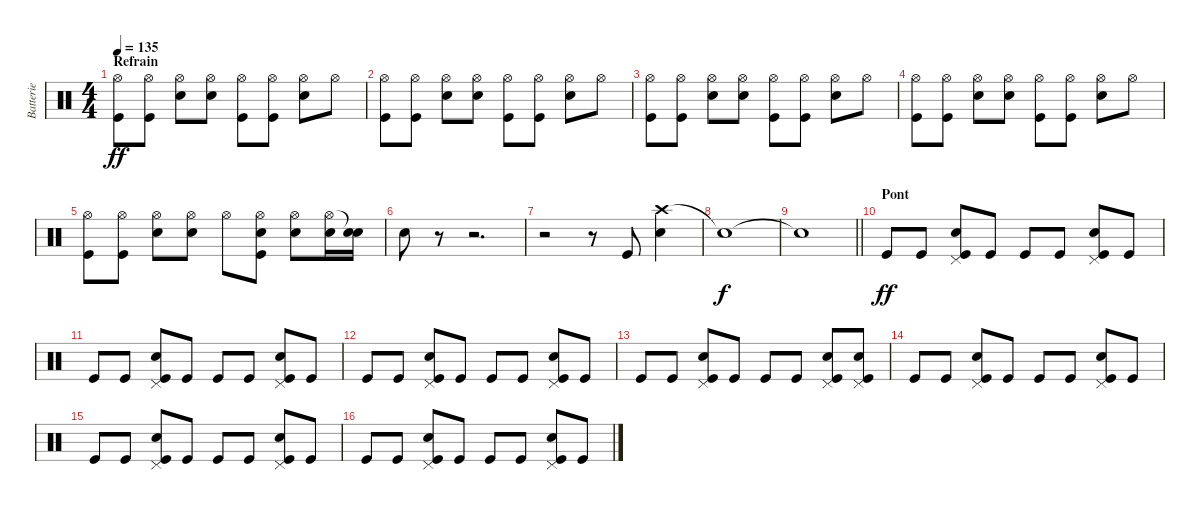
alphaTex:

\track ("Batterie" "Batterie") {instrument percussion}
\staff {score}
\articulation defaults
\ts (4 4)
\section ("" "Refrain")
\tempo 135
\clef neutral
\ks c
("Hi-Hat (open)" "Kick (hit)").8{dy ff} ("Hi-Hat (open)" "Kick (hit)").8 ("Hi-Hat (open)" "Electric Snare (hit)").8 ("Hi-Hat (open)" "Electric Snare (hit)").8 ("Hi-Hat (open)" "Kick (hit)").8 ("Hi-Hat (open)" "Kick (hit)").8 ("Hi-Hat (open)" "Electric Snare (hit)").8 "Hi-Hat (open)".8 |
("Hi-Hat (open)" "Kick (hit)").8 ("Hi-Hat (open)" "Kick (hit)").8 ("Hi-Hat (open)" "Electric Snare (hit)").8 ("Hi-Hat (open)" "Electric Snare (hit)").8 ("Hi-Hat (open)" "Kick (hit)").8 ("Hi-Hat (open)" "Kick (hit)").8 ("Hi-Hat (open)" "Electric Snare (hit)").8 "Hi-Hat (open)".8 |
("Hi-Hat (open)" "Kick (hit)").8 ("Hi-Hat (open)" "Kick (hit)").8 ("Hi-Hat (open)" "Electric Snare (hit)").8 ("Hi-Hat (open)" "Electric Snare (hit)").8 ("Hi-Hat (open)" "Kick (hit)").8 ("Hi-Hat (open)" "Kick (hit)").8 ("Hi-Hat (open)" "Electric Snare (hit)").8 "Hi-Hat (open)".8 |
("Hi-Hat (open)" "Kick (hit)").8 ("Hi-Hat (open)" "Kick (hit)").8 ("Hi-Hat (open)" "Electric Snare (hit)").8 ("Hi-Hat (open)" "Electric Snare (hit)").8 ("Hi-Hat (open)" "Kick (hit)").8 ("Hi-Hat (open)" "Kick (hit)").8 ("Hi-Hat (open)" "Electric Snare (hit)").8 "Hi-Hat (open)".8 |
("Hi-Hat (open)" "Kick (hit)").8 ("Hi-Hat (open)" "Kick (hit)").8 ("Hi-Hat (open)" "Electric Snare (hit)").8 ("Hi-Hat (open)" "Electric Snare (hit)").8 "Hi-Hat (open)".8 ("Hi-Hat (open)" "Electric Snare (hit)" "Kick (hit)").8 ("Hi-Hat (open)" "Electric Snare (hit)").8 ("Hi-Hat (open)" "Electric Snare (hit)").16 ("Snare (hit)"{t} "Electric Snare (hit)").16 |
"Electric Snare (hit)".8 r.8 r.2{d} |
r.2 r.8 "Kick (hit)".8 ("Crash high (hit)" "Electric Snare (hit)").4 |
"Snare (hit)"{t}.1{dy f} |
\barLineRight lightlight "Snare (hit)"{t}.1
|
\section ("" "Pont")
"Kick (hit)".8{dy ff} "Kick (hit)".8 ("Pedal Hi-Hat (hit)" "Electric Snare (hit)" "Kick (hit)").8 "Kick (hit)".8 "Kick (hit)".8 "Kick (hit)".8 ("Pedal Hi-Hat (hit)" "Electric Snare (hit)" "Kick (hit)").8 "Kick (hit)".8 |
"Kick (hit)".8 "Kick (hit)".8 ("Pedal Hi-Hat (hit)" "Electric Snare (hit)" "Kick (hit)").8 "Kick (hit)".8 "Kick (hit)".8 "Kick (hit)".8 ("Pedal Hi-Hat (hit)" "Electric Snare (hit)" "Kick (hit)").8 "Kick (hit)".8 |
"Kick (hit)".8 "Kick (hit)".8 ("Pedal Hi-Hat (hit)" "Electric Snare (hit)" "Kick (hit)").8 "Kick (hit)".8 "Kick (hit)".8 "Kick (hit)".8 ("Pedal Hi-Hat (hit)" "Electric Snare (hit)" "Kick (hit)").8 "Kick (hit)".8 |
"Kick (hit)".8 "Kick (hit)".8 ("Pedal Hi-Hat (hit)" "Electric Snare (hit)" "Kick (hit)").8 "Kick (hit)".8 "Kick (hit)".8 "Kick (hit)".8 ("Pedal Hi-Hat (hit)" "Electric Snare (hit)" "Kick (hit)").8 ("Pedal Hi-Hat (hit)" "Electric Snare (hit)" "Kick (hit)").8 |
"Kick (hit)".8 "Kick (hit)".8 ("Pedal Hi-Hat (hit)" "Electric Snare (hit)" "Kick (hit)").8 "Kick (hit)".8 "Kick (hit)".8 "Kick (hit)".8 ("Pedal Hi-Hat (hit)" "Electric Snare (hit)" "Kick (hit)").8 "Kick (hit)".8 |
"Kick (hit)".8 "Kick (hit)".8 ("Pedal Hi-Hat (hit)" "Electric Snare (hit)" "Kick (hit)").8 "Kick (hit)".8 "Kick (hit)".8 "Kick (hit)".8 ("Pedal Hi-Hat (hit)" "Electric Snare (hit)" "Kick (hit)").8 "Kick (hit)".8 |
"Kick (hit)".8 "Kick (hit)".8 ("Pedal Hi-Hat (hit)" "Electric Snare (hit)" "Kick (hit)").8 "Kick (hit)".8 "Kick (hit)".8 "Kick (hit)".8 ("Pedal Hi-Hat (hit)" "Electric Snare (hit)" "Kick (hit)").8 "Kick (hit)".8
